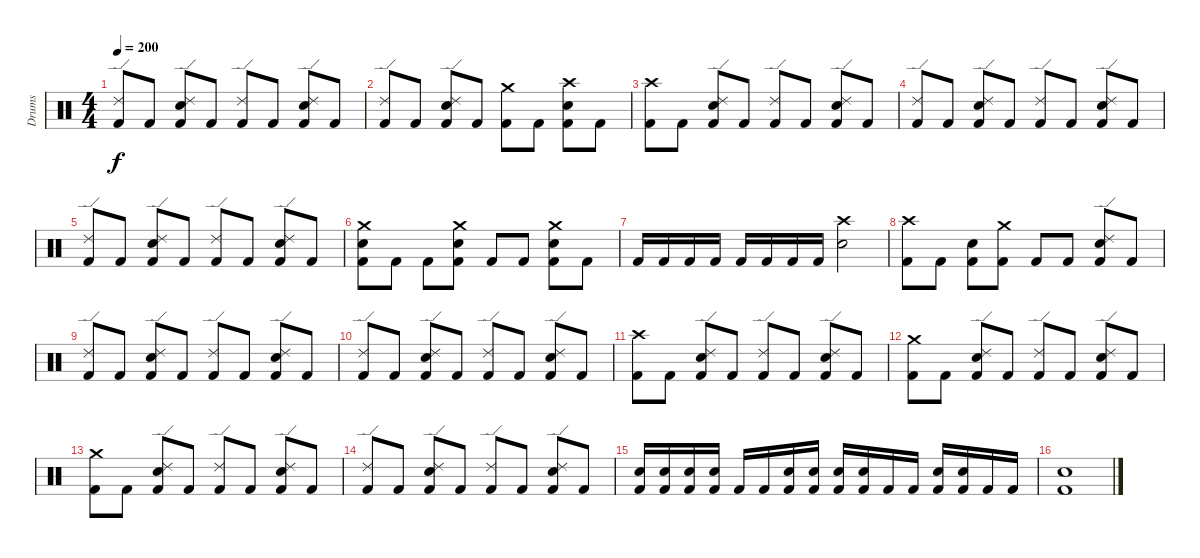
\track ("Drums" "Drums") {instrument percussion}
\staff {score}
\articulation defaults
\ts (4 4)
\tempo 200
\clef neutral
\ks c
("Kick (hit) 2" "Ride (edge) 2").8{dy f} "Kick (hit) 2".8 ("Kick (hit) 2" "Electric Snare (hit)" "Ride (edge) 2").8 "Kick (hit) 2".8 ("Kick (hit) 2" "Ride (edge) 2").8 "Kick (hit) 2".8 ("Kick (hit) 2" "Electric Snare (hit)" "Ride (edge) 2").8 "Kick (hit) 2".8 |
("Kick (hit) 2" "Ride (edge) 2").8 "Kick (hit) 2".8 ("Kick (hit) 2" "Electric Snare (hit)" "Ride (edge) 2").8 "Kick (hit) 2".8 ("Kick (hit) 2" "Crash medium (hit)").8 "Kick (hit) 2".8 ("Kick (hit) 2" "Electric Snare (hit)" "Crash high (hit)").8 "Kick (hit) 2".8 |
("Kick (hit) 2" "Crash high (hit)").8 "Kick (hit) 2".8 ("Kick (hit) 2" "Electric Snare (hit)" "Ride (edge) 2").8 "Kick (hit) 2".8 ("Kick (hit) 2" "Ride (edge) 2").8 "Kick (hit) 2".8 ("Kick (hit) 2" "Electric Snare (hit)" "Ride (edge) 2").8 "Kick (hit) 2".8 |
("Kick (hit) 2" "Ride (edge) 2").8 "Kick (hit) 2".8 ("Kick (hit) 2" "Electric Snare (hit)" "Ride (edge) 2").8 "Kick (hit) 2".8 ("Kick (hit) 2" "Ride (edge) 2").8 "Kick (hit) 2".8 ("Kick (hit) 2" "Electric Snare (hit)" "Ride (edge) 2").8 "Kick (hit) 2".8 |
("Kick (hit) 2" "Ride (edge) 2").8 "Kick (hit) 2".8 ("Kick (hit) 2" "Electric Snare (hit)" "Ride (edge) 2").8 "Kick (hit) 2".8 ("Kick (hit) 2" "Ride (edge) 2").8 "Kick (hit) 2".8 ("Kick (hit) 2" "Electric Snare (hit)" "Ride (edge) 2").8 "Kick (hit) 2".8 |
("Kick (hit) 2" "Electric Snare (hit)" "Crash medium (hit)").8 "Kick (hit) 2".8 "Kick (hit) 2".8 ("Kick (hit) 2" "Electric Snare (hit)" "Crash medium (hit)").8 "Kick (hit) 2".8 "Kick (hit) 2".8 ("Kick (hit) 2" "Electric Snare (hit)" "Crash medium (hit)").8 "Kick (hit) 2".8 |
"Kick (hit) 2".16 "Kick (hit) 2".16 "Kick (hit) 2".16 "Kick (hit) 2".16 "Kick (hit) 2".16 "Kick (hit) 2".16 "Kick (hit) 2".16 "Kick (hit) 2".16 ("Electric Snare (hit)" "Crash high (hit)").2 |
("Kick (hit) 2" "Crash high (hit)").8 "Kick (hit) 2".8 ("Kick (hit) 2" "Electric Snare (hit)").8 ("Kick (hit) 2" "Crash medium (hit)").8 "Kick (hit) 2".8 "Kick (hit) 2".8 ("Kick (hit) 2" "Electric Snare (hit)" "Ride (edge) 2").8 "Kick (hit) 2".8 |
("Kick (hit) 2" "Ride (edge) 2").8 "Kick (hit) 2".8 ("Kick (hit) 2" "Electric Snare (hit)" "Ride (edge) 2").8 "Kick (hit) 2".8 ("Kick (hit) 2" "Ride (edge) 2").8 "Kick (hit) 2".8 ("Kick (hit) 2" "Electric Snare (hit)" "Ride (edge) 2").8 "Kick (hit) 2".8 |
("Kick (hit) 2" "Ride (edge) 2").8 "Kick (hit) 2".8 ("Kick (hit) 2" "Electric Snare (hit)" "Ride (edge) 2").8 "Kick (hit) 2".8 ("Kick (hit) 2" "Ride (edge) 2").8 "Kick (hit) 2".8 ("Kick (hit) 2" "Electric Snare (hit)" "Ride (edge) 2").8 "Kick (hit) 2".8 |
("Kick (hit) 2" "Crash high (hit)").8 "Kick (hit) 2".8 ("Kick (hit) 2" "Electric Snare (hit)" "Ride (edge) 2").8 "Kick (hit) 2".8 ("Kick (hit) 2" "Ride (edge) 2").8 "Kick (hit) 2".8 ("Kick (hit) 2" "Electric Snare (hit)" "Ride (edge) 2").8 "Kick (hit) 2".8 |
("Kick (hit) 2" "Crash medium (hit)").8 "Kick (hit) 2".8 ("Kick (hit) 2" "Electric Snare (hit)" "Ride (edge) 2").8 "Kick (hit) 2".8 ("Kick (hit) 2" "Ride (edge) 2").8 "Kick (hit) 2".8 ("Kick (hit) 2" "Electric Snare (hit)" "Ride (edge) 2").8 "Kick (hit) 2".8 |
("Kick (hit) 2" "Crash medium (hit)").8 "Kick (hit) 2".8 ("Kick (hit) 2" "Electric Snare (hit)" "Ride (edge) 2").8 "Kick (hit) 2".8 ("Kick (hit) 2" "Ride (edge) 2").8 "Kick (hit) 2".8 ("Kick (hit) 2" "Electric Snare (hit)" "Ride (edge) 2").8 "Kick (hit) 2".8 |
("Kick (hit) 2" "Ride (edge) 2").8 "Kick (hit) 2".8 ("Kick (hit) 2" "Electric Snare (hit)" "Ride (edge) 2").8 "Kick (hit) 2".8 ("Kick (hit) 2" "Ride (edge) 2").8 "Kick (hit) 2".8 ("Kick (hit) 2" "Electric Snare (hit)" "Ride (edge) 2").8 "Kick (hit) 2".8 |
("Kick (hit) 2" "Electric Snare (hit)").16 ("Kick (hit) 2" "Electric Snare (hit)").16 ("Kick (hit) 2" "Electric Snare (hit)").16 ("Kick (hit) 2" "Electric Snare (hit)").16 "Kick (hit) 2".16 "Kick (hit) 2".16 ("Kick (hit) 2" "Electric Snare (hit)").16 ("Kick (hit) 2" "Electric Snare (hit)").16 ("Kick (hit) 2" "Electric Snare (hit)").16 ("Kick (hit) 2" "Electric Snare (hit)").16 "Kick (hit) 2".16 "Kick (hit) 2".16 ("Kick (hit) 2" "Electric Snare (hit)").16 ("Kick (hit) 2" "Electric Snare (hit)").16 "Kick (hit) 2".16 "Kick (hit) 2".16 |
("Kick (hit) 2" "Electric Snare (hit)").1
